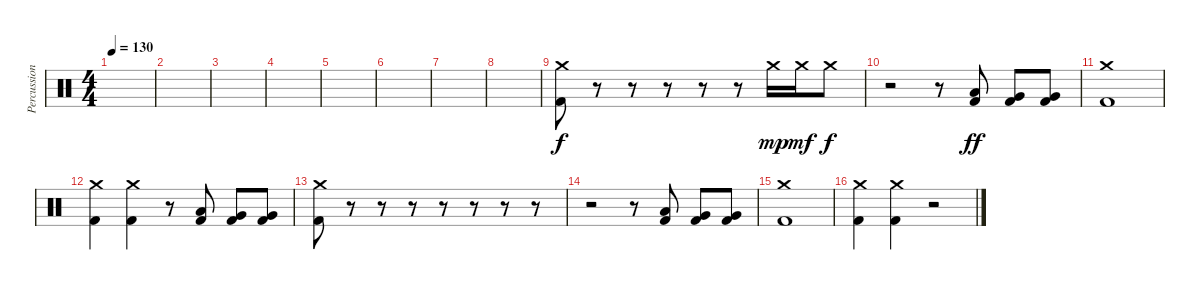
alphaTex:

\track ("Percussion" "Percussion") {instrument percussion}
\staff {score}
\articulation defaults
\ts (4 4)
\tempo 130
\clef neutral
\ks c
|
|
|
|
|
|
|
|
("Crash medium (hit)" "Kick (hit) 2").8 r.8 r.8 r.8 r.8 r.8 "Crash medium (hit)".16{dy mp} "Crash medium (hit)".16{dy mf} "Crash medium (hit)".8{dy f} |
r.2 r.8 ("Low Floor Tom (hit)" "Kick (hit) 2").8{dy ff} ("Very Low Tom (hit)" "Kick (hit) 2").8 ("Very Low Tom (hit)" "Kick (hit) 2").8 |
("Crash medium (hit)" "Kick (hit) 2").1 |
("Crash medium (hit)" "Kick (hit) 2").4 ("Crash medium (hit)" "Kick (hit) 2").4 r.8 ("Low Floor Tom (hit)" "Kick (hit) 2").8 ("Very Low Tom (hit)" "Kick (hit) 2").8 ("Very Low Tom (hit)" "Kick (hit) 2").8 |
("Crash medium (hit)" "Kick (hit) 2").8 r.8 r.8 r.8 r.8 r.8 r.8 r.8 |
r.2 r.8 ("Low Floor Tom (hit)" "Kick (hit) 2").8 ("Very Low Tom (hit)" "Kick (hit) 2").8 ("Very Low Tom (hit)" "Kick (hit) 2").8 |
("Crash medium (hit)" "Kick (hit) 2").1 |
("Crash medium (hit)" "Kick (hit) 2").4 ("Crash medium (hit)" "Kick (hit) 2").4 r.2
